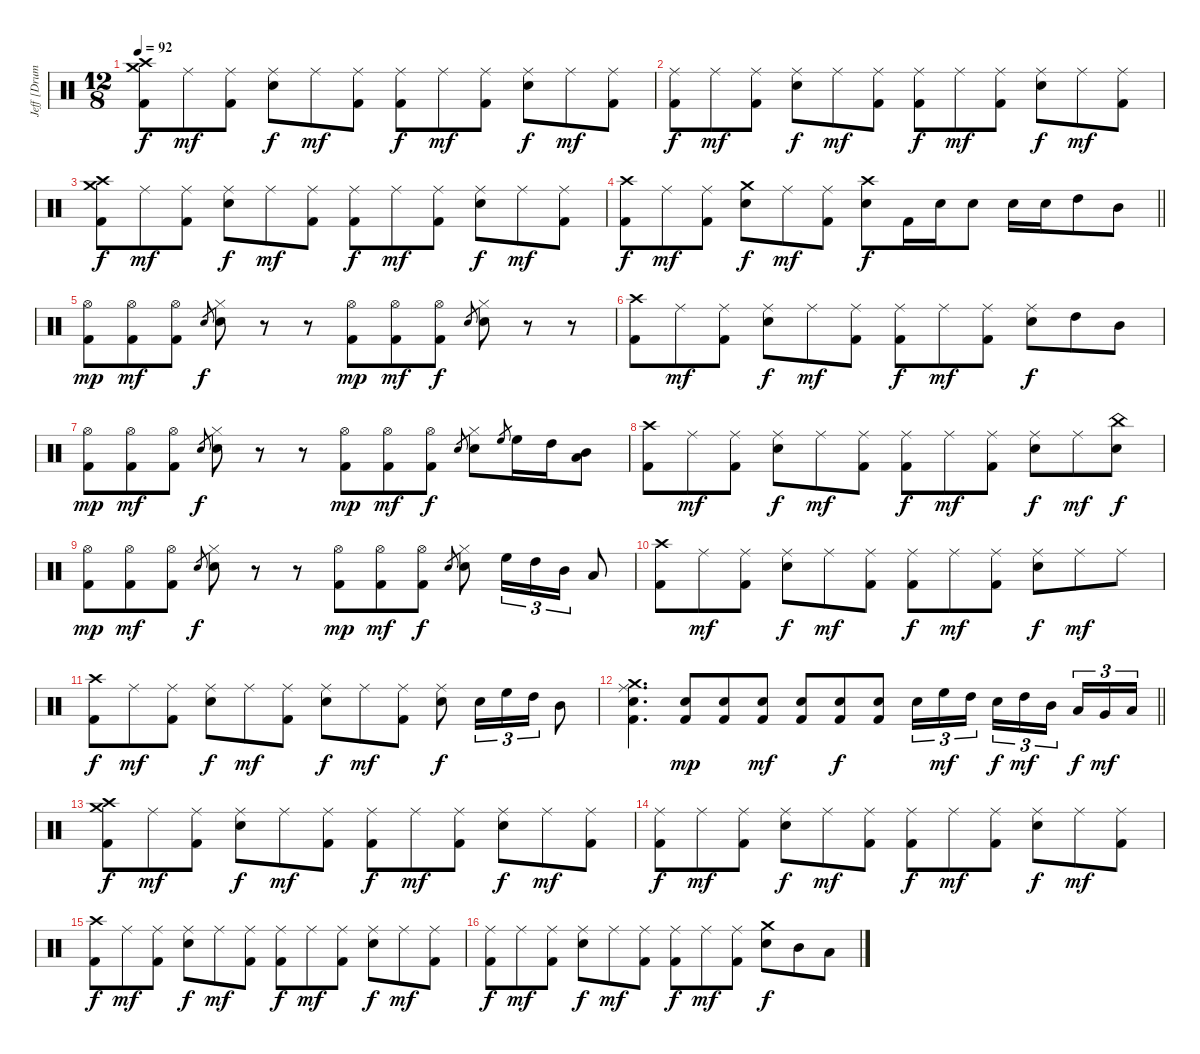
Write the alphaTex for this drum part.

\track ("Jeff [Drums]" "Jeff [Drum") {instrument percussion}
\staff {score}
\articulation defaults
\ts (12 8)
\tempo 92
\clef neutral
\ks c
("Crash high (hit)" "Crash medium (hit)" "Kick (hit) 2").8{dy f} "Ride (middle)".8{dy mf} ("Ride (middle)" "Kick (hit) 2").8 ("Ride (middle)" "Electric Snare (hit)").8{dy f} "Ride (middle)".8{dy mf} ("Ride (middle)" "Kick (hit) 2").8 ("Ride (middle)" "Kick (hit) 2").8{dy f} "Ride (middle)".8{dy mf} ("Ride (middle)" "Kick (hit) 2").8 ("Ride (middle)" "Electric Snare (hit)").8{dy f} "Ride (middle)".8{dy mf} ("Ride (middle)" "Kick (hit) 2").8 |
("Ride (middle)" "Kick (hit) 2").8{dy f} "Ride (middle)".8{dy mf} ("Ride (middle)" "Kick (hit) 2").8 ("Ride (middle)" "Electric Snare (hit)").8{dy f} "Ride (middle)".8{dy mf} ("Ride (middle)" "Kick (hit) 2").8 ("Ride (middle)" "Kick (hit) 2").8{dy f} "Ride (middle)".8{dy mf} ("Ride (middle)" "Kick (hit) 2").8 ("Ride (middle)" "Electric Snare (hit)").8{dy f} "Ride (middle)".8{dy mf} ("Ride (middle)" "Kick (hit) 2").8 |
("Crash high (hit)" "Crash medium (hit)" "Kick (hit) 2").8{dy f} "Ride (middle)".8{dy mf} ("Ride (middle)" "Kick (hit) 2").8 ("Ride (middle)" "Electric Snare (hit)").8{dy f} "Ride (middle)".8{dy mf} ("Ride (middle)" "Kick (hit) 2").8 ("Ride (middle)" "Kick (hit) 2").8{dy f} "Ride (middle)".8{dy mf} ("Ride (middle)" "Kick (hit) 2").8 ("Ride (middle)" "Electric Snare (hit)").8{dy f} "Ride (middle)".8{dy mf} ("Ride (middle)" "Kick (hit) 2").8 |
\barLineRight lightlight
("Crash high (hit)" "Kick (hit) 2").8{dy f} "Ride (middle)".8{dy mf} ("Ride (middle)" "Kick (hit) 2").8 ("Crash medium (hit)" "Electric Snare (hit)").8{dy f} "Ride (middle)".8{dy mf} ("Ride (middle)" "Kick (hit) 2").8 ("Crash high (hit)" "Electric Snare (hit)").8{dy f} "Kick (hit) 2".16 "Electric Snare (hit)".16 "Electric Snare (hit)".8 "Electric Snare (hit)".16 "Electric Snare (hit)".16 "High Tom (hit)".8 "Mid Tom (hit)".8 |
("Hi-Hat (open)" "Kick (hit) 2").8{dy mp} ("Hi-Hat (open)" "Kick (hit) 2").8{dy mf} ("Hi-Hat (open)" "Kick (hit) 2").8 "Electric Snare (hit)".8{gr dy f} ("Hi-Hat (closed)" "Electric Snare (hit)").8 r.8 r.8 ("Hi-Hat (open)" "Kick (hit) 2").8{dy mp} ("Hi-Hat (open)" "Kick (hit) 2").8{dy mf} ("Hi-Hat (open)" "Kick (hit) 2").8{dy f} "Electric Snare (hit)".8{gr} ("Hi-Hat (closed)" "Electric Snare (hit)").8 r.8 r.8 |
("Crash high (hit)" "Kick (hit) 2").8 "Ride (middle)".8{dy mf} ("Ride (middle)" "Kick (hit) 2").8 ("Ride (middle)" "Electric Snare (hit)").8{dy f} "Ride (middle)".8{dy mf} ("Ride (middle)" "Kick (hit) 2").8 ("Ride (middle)" "Kick (hit) 2").8{dy f} "Ride (middle)".8{dy mf} ("Ride (middle)" "Kick (hit) 2").8 ("Ride (middle)" "Electric Snare (hit)").8{dy f} "High Tom (hit)".8 "Mid Tom (hit)".8 |
("Hi-Hat (open)" "Kick (hit) 2").8{dy mp} ("Hi-Hat (open)" "Kick (hit) 2").8{dy mf} ("Hi-Hat (open)" "Kick (hit) 2").8 "Electric Snare (hit)".8{gr dy f} ("Hi-Hat (closed)" "Electric Snare (hit)").8 r.8 r.8 ("Hi-Hat (open)" "Kick (hit) 2").8{dy mp} ("Hi-Hat (open)" "Kick (hit) 2").8{dy mf} ("Hi-Hat (open)" "Kick (hit) 2").8{dy f} "Electric Snare (hit)".8{gr} ("Hi-Hat (closed)" "Electric Snare (hit)").8 "High Floor Tom (hit)".8{gr} "High Floor Tom (hit)".16 "High Tom (hit)".16 ("Mid Tom (hit)" "Low Tom (hit)").8 |
("Crash high (hit)" "Kick (hit) 2").8 "Ride (middle)".8{dy mf} ("Ride (middle)" "Kick (hit) 2").8 ("Ride (middle)" "Electric Snare (hit)").8{dy f} "Ride (middle)".8{dy mf} ("Ride (middle)" "Kick (hit) 2").8 ("Ride (middle)" "Kick (hit) 2").8{dy f} "Ride (middle)".8{dy mf} ("Ride (middle)" "Kick (hit) 2").8 ("Ride (middle)" "Electric Snare (hit)").8{dy f} "Ride (middle)".8{dy mf} ("China (hit)" "Electric Snare (hit)").8{dy f} |
("Hi-Hat (open)" "Kick (hit) 2").8{dy mp} ("Hi-Hat (open)" "Kick (hit) 2").8{dy mf} ("Hi-Hat (open)" "Kick (hit) 2").8 "Electric Snare (hit)".8{gr dy f} ("Hi-Hat (closed)" "Electric Snare (hit)").8 r.8 r.8 ("Hi-Hat (open)" "Kick (hit) 2").8{dy mp} ("Hi-Hat (open)" "Kick (hit) 2").8{dy mf} ("Hi-Hat (open)" "Kick (hit) 2").8{dy f} "Electric Snare (hit)".8{gr} ("Hi-Hat (closed)" "Electric Snare (hit)").8 "High Floor Tom (hit)".16{tu (3 2)} "High Tom (hit)".16{tu (3 2)} "Mid Tom (hit)".16{tu (3 2)} "Low Tom (hit)".8 |
("Crash high (hit)" "Kick (hit) 2").8 "Ride (middle)".8{dy mf} ("Ride (middle)" "Kick (hit) 2").8 ("Ride (middle)" "Electric Snare (hit)").8{dy f} "Ride (middle)".8{dy mf} ("Ride (middle)" "Kick (hit) 2").8 ("Ride (middle)" "Kick (hit) 2").8{dy f} "Ride (middle)".8{dy mf} ("Ride (middle)" "Kick (hit) 2").8 ("Ride (middle)" "Electric Snare (hit)").8{dy f} "Ride (middle)".8{dy mf} "Ride (middle)".8 |
("Crash high (hit)" "Kick (hit) 2").8{dy f} "Ride (middle)".8{dy mf} ("Ride (middle)" "Kick (hit) 2").8 ("Ride (middle)" "Electric Snare (hit)").8{dy f} "Ride (middle)".8{dy mf} ("Ride (middle)" "Kick (hit) 2").8 ("Ride (middle)" "Electric Snare (hit)").8{dy f} "Ride (middle)".8{dy mf} ("Ride (middle)" "Kick (hit) 2").8 ("Ride (middle)" "Electric Snare (hit)").8{dy f} "Electric Snare (hit)".16{tu (3 2)} "High Floor Tom (hit)".16{tu (3 2)} "High Tom (hit)".16{tu (3 2)} "Mid Tom (hit)".8 |
\barLineRight lightlight
("Crash medium (hit)" "Ride (middle)" "Electric Snare (hit)" "Kick (hit) 2").4{d} ("Electric Snare (hit)" "Kick (hit) 2").8{dy mp} ("Electric Snare (hit)" "Kick (hit) 2").8 ("Electric Snare (hit)" "Kick (hit) 2").8{dy mf} ("Electric Snare (hit)" "Kick (hit) 2").8 ("Electric Snare (hit)" "Kick (hit) 2").8{dy f} ("Electric Snare (hit)" "Kick (hit) 2").8 "Electric Snare (hit)".16{tu (3 2)} "High Floor Tom (hit)".16{tu (3 2) dy mf} "High Tom (hit)".16{tu (3 2)} "Electric Snare (hit)".16{tu (3 2) dy f} "High Tom (hit)".16{tu (3 2) dy mf} "Mid Tom (hit)".16{tu (3 2)} "Low Tom (hit)".16{tu (3 2) dy f} "Very Low Tom (hit)".16{tu (3 2) dy mf} "Low Floor Tom (hit)".16{tu (3 2)} |
("Crash high (hit)" "Crash medium (hit)" "Kick (hit) 2").8{dy f} "Ride (middle)".8{dy mf} ("Ride (middle)" "Kick (hit) 2").8 ("Ride (middle)" "Electric Snare (hit)").8{dy f} "Ride (middle)".8{dy mf} ("Ride (middle)" "Kick (hit) 2").8 ("Ride (middle)" "Kick (hit) 2").8{dy f} "Ride (middle)".8{dy mf} ("Ride (middle)" "Kick (hit) 2").8 ("Ride (middle)" "Electric Snare (hit)").8{dy f} "Ride (middle)".8{dy mf} ("Ride (middle)" "Kick (hit) 2").8 |
("Ride (middle)" "Kick (hit) 2").8{dy f} "Ride (middle)".8{dy mf} ("Ride (middle)" "Kick (hit) 2").8 ("Ride (middle)" "Electric Snare (hit)").8{dy f} "Ride (middle)".8{dy mf} ("Ride (middle)" "Kick (hit) 2").8 ("Ride (middle)" "Kick (hit) 2").8{dy f} "Ride (middle)".8{dy mf} ("Ride (middle)" "Kick (hit) 2").8 ("Ride (middle)" "Electric Snare (hit)").8{dy f} "Ride (middle)".8{dy mf} ("Ride (middle)" "Kick (hit) 2").8 |
("Crash high (hit)" "Kick (hit) 2").8{dy f} "Ride (middle)".8{dy mf} ("Ride (middle)" "Kick (hit) 2").8 ("Ride (middle)" "Electric Snare (hit)").8{dy f} "Ride (middle)".8{dy mf} ("Ride (middle)" "Kick (hit) 2").8 ("Ride (middle)" "Kick (hit) 2").8{dy f} "Ride (middle)".8{dy mf} ("Ride (middle)" "Kick (hit) 2").8 ("Ride (middle)" "Electric Snare (hit)").8{dy f} "Ride (middle)".8{dy mf} ("Ride (middle)" "Kick (hit) 2").8 |
("Ride (middle)" "Kick (hit) 2").8{dy f} "Ride (middle)".8{dy mf} ("Ride (middle)" "Kick (hit) 2").8 ("Ride (middle)" "Electric Snare (hit)").8{dy f} "Ride (middle)".8{dy mf} ("Ride (middle)" "Kick (hit) 2").8 ("Ride (middle)" "Kick (hit) 2").8{dy f} "Ride (middle)".8{dy mf} ("Ride (middle)" "Kick (hit) 2").8 ("Crash medium (hit)" "Electric Snare (hit)").8{dy f} "Mid Tom (hit)".8 "Low Tom (hit)".8
